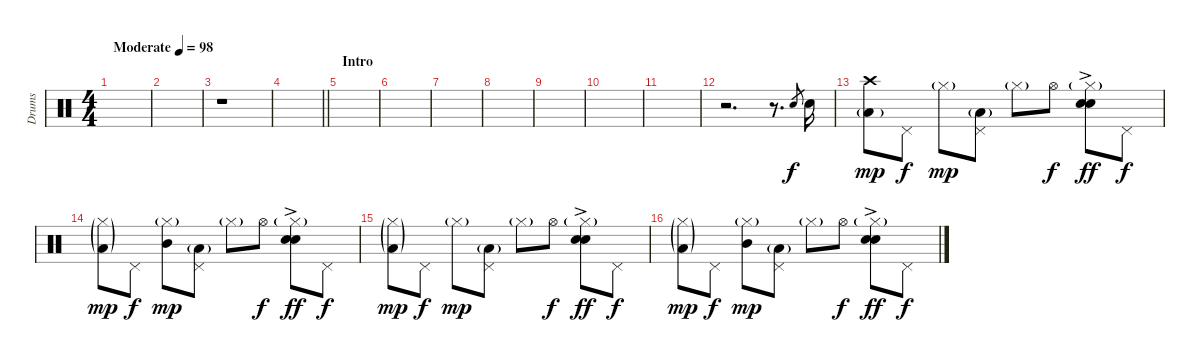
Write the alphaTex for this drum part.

\track ("Drums" "Drums") {instrument percussion}
\staff {score}
\articulation defaults
\ts (4 4)
\tempo (98 "Moderate")
\clef neutral
\ks c
|
|
r.1 |
\barLineRight lightlight
|
\section ("" "Intro")
|
|
|
|
|
|
|
r.2{d} r.8{d} "Snare (hit) 2".8{gr} "Snare (hit) 2".16 |
("Crash high (hit)" "Low Tom (hit)"{g}).8{dy mp} "Pedal Hi-Hat (hit)".8{dy f} "Hi-Hat (closed)"{g}.8{dy mp} ("Pedal Hi-Hat (hit)" "Low Tom (hit)"{g}).8 "Hi-Hat (closed)"{g}.8 "Hi-Hat (open)".8{dy f} ("Hi-Hat (closed)"{g} "Snare (hit) 2"{ac} "Snare (hit) 2"{ac}).8{dy ff} "Pedal Hi-Hat (hit)".8{dy f} |
("Hi-Hat (closed)"{g} "Low Tom (hit)"{g}).8{dy mp} "Pedal Hi-Hat (hit)".8{dy f} ("Hi-Hat (closed)"{g} "Mid Tom (hit)").8{dy mp} ("Pedal Hi-Hat (hit)" "Low Tom (hit)"{g}).8 "Hi-Hat (closed)"{g}.8 "Hi-Hat (open)".8{dy f} ("Hi-Hat (closed)"{g} "Snare (hit) 2"{ac} "Snare (hit) 2"{ac}).8{dy ff} "Pedal Hi-Hat (hit)".8{dy f} |
("Hi-Hat (closed)"{g} "Low Tom (hit)"{g}).8{dy mp} "Pedal Hi-Hat (hit)".8{dy f} "Hi-Hat (closed)"{g}.8{dy mp} ("Pedal Hi-Hat (hit)" "Low Tom (hit)"{g}).8 "Hi-Hat (closed)"{g}.8 "Hi-Hat (open)".8{dy f} ("Hi-Hat (closed)"{g} "Snare (hit) 2"{ac} "Snare (hit) 2"{ac}).8{dy ff} "Pedal Hi-Hat (hit)".8{dy f} |
("Hi-Hat (closed)"{g} "Low Tom (hit)"{g}).8{dy mp} "Pedal Hi-Hat (hit)".8{dy f} ("Hi-Hat (closed)"{g} "Mid Tom (hit)").8{dy mp} ("Pedal Hi-Hat (hit)" "Low Tom (hit)"{g}).8 "Hi-Hat (closed)"{g}.8 "Hi-Hat (open)".8{dy f} ("Hi-Hat (closed)"{g} "Snare (hit) 2"{ac} "Snare (hit) 2"{ac}).8{dy ff} "Pedal Hi-Hat (hit)".8{dy f}
